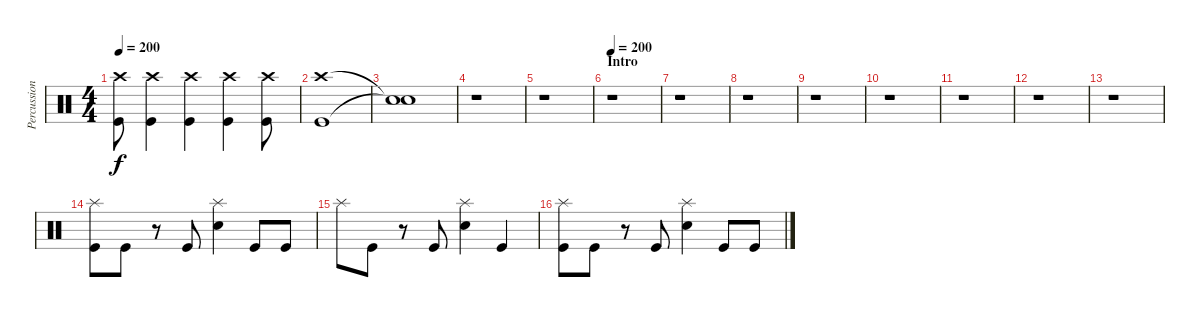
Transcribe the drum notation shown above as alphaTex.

\track ("Percussion" "Percussion") {instrument percussion}
\staff {score}
\articulation defaults
\ts (4 4)
\tempo 200
\clef neutral
\ks c
("Crash high (hit)" "Kick (hit)").8{dy f} ("Crash high (hit)" "Kick (hit)").4 ("Crash high (hit)" "Kick (hit)").4 ("Crash high (hit)" "Kick (hit)").4 ("Crash high (hit)" "Kick (hit)").8 |
("Crash high (hit)" "Kick (hit)").1 |
("Snare (hit)"{t} "Snare (hit)"{t}).1 |
r.1 |
r.1 |
\section ("" "Intro")
\tempo 200
r.1 |
r.1 |
r.1 |
r.1 |
r.1 |
r.1 |
r.1 |
r.1 |
("Splash (hit)" "Kick (hit)").8 "Kick (hit)".8 r.8 "Kick (hit)".8 ("Splash (hit)" "Electric Snare (hit)").4 "Kick (hit)".8 "Kick (hit)".8 |
"Splash (hit)".8 "Kick (hit)".8 r.8 "Kick (hit)".8 ("Splash (hit)" "Electric Snare (hit)").4 "Kick (hit)".4 |
("Splash (hit)" "Kick (hit)").8 "Kick (hit)".8 r.8 "Kick (hit)".8 ("Splash (hit)" "Electric Snare (hit)").4 "Kick (hit)".8 "Kick (hit)".8
